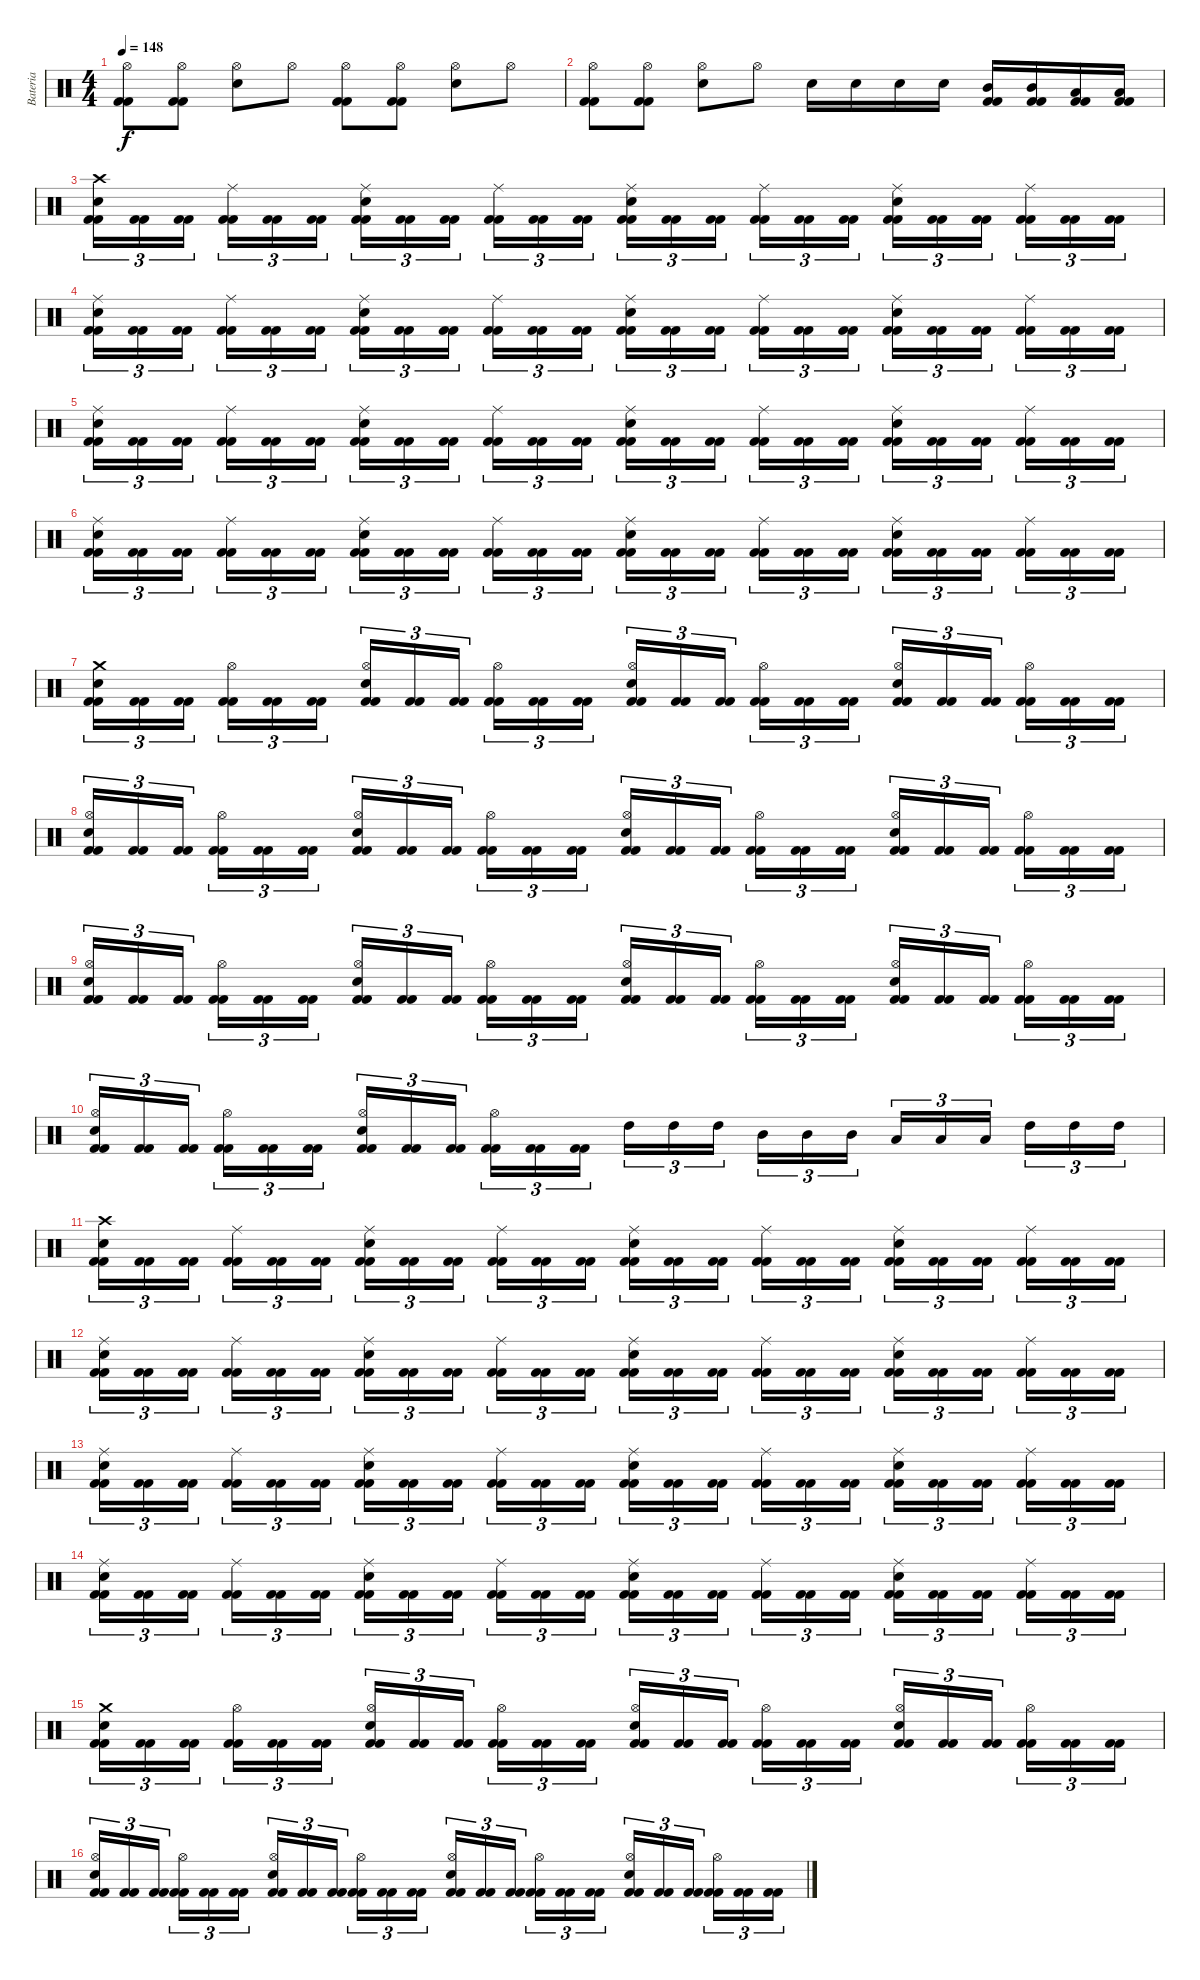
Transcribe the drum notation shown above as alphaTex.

\track ("Bateria" "Bateria") {instrument percussion}
\staff {score}
\articulation defaults
\ts (4 4)
\tempo 148
\clef neutral
\ks c
("Kick (hit) 2" "Kick (hit) 2" "Hi-Hat (open)").8{dy f} ("Kick (hit) 2" "Kick (hit) 2" "Hi-Hat (open)").8 ("Snare (hit) 2" "Hi-Hat (open)").8 "Hi-Hat (open)".8 ("Kick (hit) 2" "Kick (hit) 2" "Hi-Hat (open)").8 ("Kick (hit) 2" "Kick (hit) 2" "Hi-Hat (open)").8 ("Snare (hit) 2" "Hi-Hat (open)").8 "Hi-Hat (open)".8 |
("Kick (hit) 2" "Kick (hit) 2" "Hi-Hat (open)").8 ("Kick (hit) 2" "Kick (hit) 2" "Hi-Hat (open)").8 ("Snare (hit) 2" "Hi-Hat (open)").8 "Hi-Hat (open)".8 "Snare (hit) 2".16 "Snare (hit) 2".16 "Snare (hit) 2".16 "Snare (hit) 2".16 ("Kick (hit) 2" "Kick (hit) 2" "Mid Tom (hit)").16 ("Kick (hit) 2" "Kick (hit) 2" "Mid Tom (hit)").16 ("Kick (hit) 2" "Kick (hit) 2" "Low Tom (hit)").16 ("Kick (hit) 2" "Kick (hit) 2" "Low Tom (hit)").16 |
("Kick (hit) 2" "Kick (hit) 2" "Snare (hit) 2" "Crash high (hit)").16{tu (3 2)} ("Kick (hit) 2" "Kick (hit) 2").16{tu (3 2)} ("Kick (hit) 2" "Kick (hit) 2").16{tu (3 2)} ("Kick (hit) 2" "Kick (hit) 2" "Ride (middle)").16{tu (3 2)} ("Kick (hit) 2" "Kick (hit) 2").16{tu (3 2)} ("Kick (hit) 2" "Kick (hit) 2").16{tu (3 2)} ("Kick (hit) 2" "Kick (hit) 2" "Snare (hit) 2" "Ride (middle)").16{tu (3 2)} ("Kick (hit) 2" "Kick (hit) 2").16{tu (3 2)} ("Kick (hit) 2" "Kick (hit) 2").16{tu (3 2)} ("Kick (hit) 2" "Kick (hit) 2" "Ride (middle)").16{tu (3 2)} ("Kick (hit) 2" "Kick (hit) 2").16{tu (3 2)} ("Kick (hit) 2" "Kick (hit) 2").16{tu (3 2)} ("Kick (hit) 2" "Kick (hit) 2" "Snare (hit) 2" "Ride (middle)").16{tu (3 2)} ("Kick (hit) 2" "Kick (hit) 2").16{tu (3 2)} ("Kick (hit) 2" "Kick (hit) 2").16{tu (3 2)} ("Kick (hit) 2" "Kick (hit) 2" "Ride (middle)").16{tu (3 2)} ("Kick (hit) 2" "Kick (hit) 2").16{tu (3 2)} ("Kick (hit) 2" "Kick (hit) 2").16{tu (3 2)} ("Kick (hit) 2" "Kick (hit) 2" "Snare (hit) 2" "Ride (middle)").16{tu (3 2)} ("Kick (hit) 2" "Kick (hit) 2").16{tu (3 2)} ("Kick (hit) 2" "Kick (hit) 2").16{tu (3 2)} ("Kick (hit) 2" "Kick (hit) 2" "Ride (middle)").16{tu (3 2)} ("Kick (hit) 2" "Kick (hit) 2").16{tu (3 2)} ("Kick (hit) 2" "Kick (hit) 2").16{tu (3 2)} |
("Kick (hit) 2" "Kick (hit) 2" "Snare (hit) 2" "Ride (middle)").16{tu (3 2)} ("Kick (hit) 2" "Kick (hit) 2").16{tu (3 2)} ("Kick (hit) 2" "Kick (hit) 2").16{tu (3 2)} ("Kick (hit) 2" "Kick (hit) 2" "Ride (middle)").16{tu (3 2)} ("Kick (hit) 2" "Kick (hit) 2").16{tu (3 2)} ("Kick (hit) 2" "Kick (hit) 2").16{tu (3 2)} ("Kick (hit) 2" "Kick (hit) 2" "Snare (hit) 2" "Ride (middle)").16{tu (3 2)} ("Kick (hit) 2" "Kick (hit) 2").16{tu (3 2)} ("Kick (hit) 2" "Kick (hit) 2").16{tu (3 2)} ("Kick (hit) 2" "Kick (hit) 2" "Ride (middle)").16{tu (3 2)} ("Kick (hit) 2" "Kick (hit) 2").16{tu (3 2)} ("Kick (hit) 2" "Kick (hit) 2").16{tu (3 2)} ("Kick (hit) 2" "Kick (hit) 2" "Snare (hit) 2" "Ride (middle)").16{tu (3 2)} ("Kick (hit) 2" "Kick (hit) 2").16{tu (3 2)} ("Kick (hit) 2" "Kick (hit) 2").16{tu (3 2)} ("Kick (hit) 2" "Kick (hit) 2" "Ride (middle)").16{tu (3 2)} ("Kick (hit) 2" "Kick (hit) 2").16{tu (3 2)} ("Kick (hit) 2" "Kick (hit) 2").16{tu (3 2)} ("Kick (hit) 2" "Kick (hit) 2" "Snare (hit) 2" "Ride (middle)").16{tu (3 2)} ("Kick (hit) 2" "Kick (hit) 2").16{tu (3 2)} ("Kick (hit) 2" "Kick (hit) 2").16{tu (3 2)} ("Kick (hit) 2" "Kick (hit) 2" "Ride (middle)").16{tu (3 2)} ("Kick (hit) 2" "Kick (hit) 2").16{tu (3 2)} ("Kick (hit) 2" "Kick (hit) 2").16{tu (3 2)} |
("Kick (hit) 2" "Kick (hit) 2" "Snare (hit) 2" "Ride (middle)").16{tu (3 2)} ("Kick (hit) 2" "Kick (hit) 2").16{tu (3 2)} ("Kick (hit) 2" "Kick (hit) 2").16{tu (3 2)} ("Kick (hit) 2" "Kick (hit) 2" "Ride (middle)").16{tu (3 2)} ("Kick (hit) 2" "Kick (hit) 2").16{tu (3 2)} ("Kick (hit) 2" "Kick (hit) 2").16{tu (3 2)} ("Kick (hit) 2" "Kick (hit) 2" "Snare (hit) 2" "Ride (middle)").16{tu (3 2)} ("Kick (hit) 2" "Kick (hit) 2").16{tu (3 2)} ("Kick (hit) 2" "Kick (hit) 2").16{tu (3 2)} ("Kick (hit) 2" "Kick (hit) 2" "Ride (middle)").16{tu (3 2)} ("Kick (hit) 2" "Kick (hit) 2").16{tu (3 2)} ("Kick (hit) 2" "Kick (hit) 2").16{tu (3 2)} ("Kick (hit) 2" "Kick (hit) 2" "Snare (hit) 2" "Ride (middle)").16{tu (3 2)} ("Kick (hit) 2" "Kick (hit) 2").16{tu (3 2)} ("Kick (hit) 2" "Kick (hit) 2").16{tu (3 2)} ("Kick (hit) 2" "Kick (hit) 2" "Ride (middle)").16{tu (3 2)} ("Kick (hit) 2" "Kick (hit) 2").16{tu (3 2)} ("Kick (hit) 2" "Kick (hit) 2").16{tu (3 2)} ("Kick (hit) 2" "Kick (hit) 2" "Snare (hit) 2" "Ride (middle)").16{tu (3 2)} ("Kick (hit) 2" "Kick (hit) 2").16{tu (3 2)} ("Kick (hit) 2" "Kick (hit) 2").16{tu (3 2)} ("Kick (hit) 2" "Kick (hit) 2" "Ride (middle)").16{tu (3 2)} ("Kick (hit) 2" "Kick (hit) 2").16{tu (3 2)} ("Kick (hit) 2" "Kick (hit) 2").16{tu (3 2)} |
("Kick (hit) 2" "Kick (hit) 2" "Snare (hit) 2" "Ride (middle)").16{tu (3 2)} ("Kick (hit) 2" "Kick (hit) 2").16{tu (3 2)} ("Kick (hit) 2" "Kick (hit) 2").16{tu (3 2)} ("Kick (hit) 2" "Kick (hit) 2" "Ride (middle)").16{tu (3 2)} ("Kick (hit) 2" "Kick (hit) 2").16{tu (3 2)} ("Kick (hit) 2" "Kick (hit) 2").16{tu (3 2)} ("Kick (hit) 2" "Kick (hit) 2" "Snare (hit) 2" "Ride (middle)").16{tu (3 2)} ("Kick (hit) 2" "Kick (hit) 2").16{tu (3 2)} ("Kick (hit) 2" "Kick (hit) 2").16{tu (3 2)} ("Kick (hit) 2" "Kick (hit) 2" "Ride (middle)").16{tu (3 2)} ("Kick (hit) 2" "Kick (hit) 2").16{tu (3 2)} ("Kick (hit) 2" "Kick (hit) 2").16{tu (3 2)} ("Kick (hit) 2" "Kick (hit) 2" "Snare (hit) 2" "Ride (middle)").16{tu (3 2)} ("Kick (hit) 2" "Kick (hit) 2").16{tu (3 2)} ("Kick (hit) 2" "Kick (hit) 2").16{tu (3 2)} ("Kick (hit) 2" "Kick (hit) 2" "Ride (middle)").16{tu (3 2)} ("Kick (hit) 2" "Kick (hit) 2").16{tu (3 2)} ("Kick (hit) 2" "Kick (hit) 2").16{tu (3 2)} ("Kick (hit) 2" "Kick (hit) 2" "Snare (hit) 2" "Ride (middle)").16{tu (3 2)} ("Kick (hit) 2" "Kick (hit) 2").16{tu (3 2)} ("Kick (hit) 2" "Kick (hit) 2").16{tu (3 2)} ("Kick (hit) 2" "Kick (hit) 2" "Ride (middle)").16{tu (3 2)} ("Kick (hit) 2" "Kick (hit) 2").16{tu (3 2)} ("Kick (hit) 2" "Kick (hit) 2").16{tu (3 2)} |
("Kick (hit) 2" "Kick (hit) 2" "Snare (hit) 2" "Crash medium (hit)").16{tu (3 2)} ("Kick (hit) 2" "Kick (hit) 2").16{tu (3 2)} ("Kick (hit) 2" "Kick (hit) 2").16{tu (3 2)} ("Kick (hit) 2" "Kick (hit) 2" "Hi-Hat (open)").16{tu (3 2)} ("Kick (hit) 2" "Kick (hit) 2").16{tu (3 2)} ("Kick (hit) 2" "Kick (hit) 2").16{tu (3 2)} ("Kick (hit) 2" "Kick (hit) 2" "Snare (hit) 2" "Hi-Hat (open)").16{tu (3 2)} ("Kick (hit) 2" "Kick (hit) 2").16{tu (3 2)} ("Kick (hit) 2" "Kick (hit) 2").16{tu (3 2)} ("Kick (hit) 2" "Kick (hit) 2" "Hi-Hat (open)").16{tu (3 2)} ("Kick (hit) 2" "Kick (hit) 2").16{tu (3 2)} ("Kick (hit) 2" "Kick (hit) 2").16{tu (3 2)} ("Kick (hit) 2" "Kick (hit) 2" "Snare (hit) 2" "Hi-Hat (open)").16{tu (3 2)} ("Kick (hit) 2" "Kick (hit) 2").16{tu (3 2)} ("Kick (hit) 2" "Kick (hit) 2").16{tu (3 2)} ("Kick (hit) 2" "Kick (hit) 2" "Hi-Hat (open)").16{tu (3 2)} ("Kick (hit) 2" "Kick (hit) 2").16{tu (3 2)} ("Kick (hit) 2" "Kick (hit) 2").16{tu (3 2)} ("Kick (hit) 2" "Kick (hit) 2" "Snare (hit) 2" "Hi-Hat (open)").16{tu (3 2)} ("Kick (hit) 2" "Kick (hit) 2").16{tu (3 2)} ("Kick (hit) 2" "Kick (hit) 2").16{tu (3 2)} ("Kick (hit) 2" "Kick (hit) 2" "Hi-Hat (open)").16{tu (3 2)} ("Kick (hit) 2" "Kick (hit) 2").16{tu (3 2)} ("Kick (hit) 2" "Kick (hit) 2").16{tu (3 2)} |
("Kick (hit) 2" "Kick (hit) 2" "Snare (hit) 2" "Hi-Hat (open)").16{tu (3 2)} ("Kick (hit) 2" "Kick (hit) 2").16{tu (3 2)} ("Kick (hit) 2" "Kick (hit) 2").16{tu (3 2)} ("Kick (hit) 2" "Kick (hit) 2" "Hi-Hat (open)").16{tu (3 2)} ("Kick (hit) 2" "Kick (hit) 2").16{tu (3 2)} ("Kick (hit) 2" "Kick (hit) 2").16{tu (3 2)} ("Kick (hit) 2" "Kick (hit) 2" "Snare (hit) 2" "Hi-Hat (open)").16{tu (3 2)} ("Kick (hit) 2" "Kick (hit) 2").16{tu (3 2)} ("Kick (hit) 2" "Kick (hit) 2").16{tu (3 2)} ("Kick (hit) 2" "Kick (hit) 2" "Hi-Hat (open)").16{tu (3 2)} ("Kick (hit) 2" "Kick (hit) 2").16{tu (3 2)} ("Kick (hit) 2" "Kick (hit) 2").16{tu (3 2)} ("Kick (hit) 2" "Kick (hit) 2" "Snare (hit) 2" "Hi-Hat (open)").16{tu (3 2)} ("Kick (hit) 2" "Kick (hit) 2").16{tu (3 2)} ("Kick (hit) 2" "Kick (hit) 2").16{tu (3 2)} ("Kick (hit) 2" "Kick (hit) 2" "Hi-Hat (open)").16{tu (3 2)} ("Kick (hit) 2" "Kick (hit) 2").16{tu (3 2)} ("Kick (hit) 2" "Kick (hit) 2").16{tu (3 2)} ("Kick (hit) 2" "Kick (hit) 2" "Snare (hit) 2" "Hi-Hat (open)").16{tu (3 2)} ("Kick (hit) 2" "Kick (hit) 2").16{tu (3 2)} ("Kick (hit) 2" "Kick (hit) 2").16{tu (3 2)} ("Kick (hit) 2" "Kick (hit) 2" "Hi-Hat (open)").16{tu (3 2)} ("Kick (hit) 2" "Kick (hit) 2").16{tu (3 2)} ("Kick (hit) 2" "Kick (hit) 2").16{tu (3 2)} |
("Kick (hit) 2" "Kick (hit) 2" "Snare (hit) 2" "Hi-Hat (open)").16{tu (3 2)} ("Kick (hit) 2" "Kick (hit) 2").16{tu (3 2)} ("Kick (hit) 2" "Kick (hit) 2").16{tu (3 2)} ("Kick (hit) 2" "Kick (hit) 2" "Hi-Hat (open)").16{tu (3 2)} ("Kick (hit) 2" "Kick (hit) 2").16{tu (3 2)} ("Kick (hit) 2" "Kick (hit) 2").16{tu (3 2)} ("Kick (hit) 2" "Kick (hit) 2" "Snare (hit) 2" "Hi-Hat (open)").16{tu (3 2)} ("Kick (hit) 2" "Kick (hit) 2").16{tu (3 2)} ("Kick (hit) 2" "Kick (hit) 2").16{tu (3 2)} ("Kick (hit) 2" "Kick (hit) 2" "Hi-Hat (open)").16{tu (3 2)} ("Kick (hit) 2" "Kick (hit) 2").16{tu (3 2)} ("Kick (hit) 2" "Kick (hit) 2").16{tu (3 2)} ("Kick (hit) 2" "Kick (hit) 2" "Snare (hit) 2" "Hi-Hat (open)").16{tu (3 2)} ("Kick (hit) 2" "Kick (hit) 2").16{tu (3 2)} ("Kick (hit) 2" "Kick (hit) 2").16{tu (3 2)} ("Kick (hit) 2" "Kick (hit) 2" "Hi-Hat (open)").16{tu (3 2)} ("Kick (hit) 2" "Kick (hit) 2").16{tu (3 2)} ("Kick (hit) 2" "Kick (hit) 2").16{tu (3 2)} ("Kick (hit) 2" "Kick (hit) 2" "Snare (hit) 2" "Hi-Hat (open)").16{tu (3 2)} ("Kick (hit) 2" "Kick (hit) 2").16{tu (3 2)} ("Kick (hit) 2" "Kick (hit) 2").16{tu (3 2)} ("Kick (hit) 2" "Kick (hit) 2" "Hi-Hat (open)").16{tu (3 2)} ("Kick (hit) 2" "Kick (hit) 2").16{tu (3 2)} ("Kick (hit) 2" "Kick (hit) 2").16{tu (3 2)} |
("Kick (hit) 2" "Kick (hit) 2" "Snare (hit) 2" "Hi-Hat (open)").16{tu (3 2)} ("Kick (hit) 2" "Kick (hit) 2").16{tu (3 2)} ("Kick (hit) 2" "Kick (hit) 2").16{tu (3 2)} ("Kick (hit) 2" "Kick (hit) 2" "Hi-Hat (open)").16{tu (3 2)} ("Kick (hit) 2" "Kick (hit) 2").16{tu (3 2)} ("Kick (hit) 2" "Kick (hit) 2").16{tu (3 2)} ("Kick (hit) 2" "Kick (hit) 2" "Snare (hit) 2" "Hi-Hat (open)").16{tu (3 2)} ("Kick (hit) 2" "Kick (hit) 2").16{tu (3 2)} ("Kick (hit) 2" "Kick (hit) 2").16{tu (3 2)} ("Kick (hit) 2" "Kick (hit) 2" "Hi-Hat (open)").16{tu (3 2)} ("Kick (hit) 2" "Kick (hit) 2").16{tu (3 2)} ("Kick (hit) 2" "Kick (hit) 2").16{tu (3 2)} "High Tom (hit)".16{tu (3 2)} "High Tom (hit)".16{tu (3 2)} "High Tom (hit)".16{tu (3 2)} "Mid Tom (hit)".16{tu (3 2)} "Mid Tom (hit)".16{tu (3 2)} "Mid Tom (hit)".16{tu (3 2)} "Low Tom (hit)".16{tu (3 2)} "Low Tom (hit)".16{tu (3 2)} "Low Tom (hit)".16{tu (3 2)} "High Tom (hit)".16{tu (3 2)} "High Tom (hit)".16{tu (3 2)} "High Tom (hit)".16{tu (3 2)} |
("Kick (hit) 2" "Kick (hit) 2" "Snare (hit) 2" "Crash high (hit)").16{tu (3 2)} ("Kick (hit) 2" "Kick (hit) 2").16{tu (3 2)} ("Kick (hit) 2" "Kick (hit) 2").16{tu (3 2)} ("Kick (hit) 2" "Kick (hit) 2" "Ride (middle)").16{tu (3 2)} ("Kick (hit) 2" "Kick (hit) 2").16{tu (3 2)} ("Kick (hit) 2" "Kick (hit) 2").16{tu (3 2)} ("Kick (hit) 2" "Kick (hit) 2" "Snare (hit) 2" "Ride (middle)").16{tu (3 2)} ("Kick (hit) 2" "Kick (hit) 2").16{tu (3 2)} ("Kick (hit) 2" "Kick (hit) 2").16{tu (3 2)} ("Kick (hit) 2" "Kick (hit) 2" "Ride (middle)").16{tu (3 2)} ("Kick (hit) 2" "Kick (hit) 2").16{tu (3 2)} ("Kick (hit) 2" "Kick (hit) 2").16{tu (3 2)} ("Kick (hit) 2" "Kick (hit) 2" "Snare (hit) 2" "Ride (middle)").16{tu (3 2)} ("Kick (hit) 2" "Kick (hit) 2").16{tu (3 2)} ("Kick (hit) 2" "Kick (hit) 2").16{tu (3 2)} ("Kick (hit) 2" "Kick (hit) 2" "Ride (middle)").16{tu (3 2)} ("Kick (hit) 2" "Kick (hit) 2").16{tu (3 2)} ("Kick (hit) 2" "Kick (hit) 2").16{tu (3 2)} ("Kick (hit) 2" "Kick (hit) 2" "Snare (hit) 2" "Ride (middle)").16{tu (3 2)} ("Kick (hit) 2" "Kick (hit) 2").16{tu (3 2)} ("Kick (hit) 2" "Kick (hit) 2").16{tu (3 2)} ("Kick (hit) 2" "Kick (hit) 2" "Ride (middle)").16{tu (3 2)} ("Kick (hit) 2" "Kick (hit) 2").16{tu (3 2)} ("Kick (hit) 2" "Kick (hit) 2").16{tu (3 2)} |
("Kick (hit) 2" "Kick (hit) 2" "Snare (hit) 2" "Ride (middle)").16{tu (3 2)} ("Kick (hit) 2" "Kick (hit) 2").16{tu (3 2)} ("Kick (hit) 2" "Kick (hit) 2").16{tu (3 2)} ("Kick (hit) 2" "Kick (hit) 2" "Ride (middle)").16{tu (3 2)} ("Kick (hit) 2" "Kick (hit) 2").16{tu (3 2)} ("Kick (hit) 2" "Kick (hit) 2").16{tu (3 2)} ("Kick (hit) 2" "Kick (hit) 2" "Snare (hit) 2" "Ride (middle)").16{tu (3 2)} ("Kick (hit) 2" "Kick (hit) 2").16{tu (3 2)} ("Kick (hit) 2" "Kick (hit) 2").16{tu (3 2)} ("Kick (hit) 2" "Kick (hit) 2" "Ride (middle)").16{tu (3 2)} ("Kick (hit) 2" "Kick (hit) 2").16{tu (3 2)} ("Kick (hit) 2" "Kick (hit) 2").16{tu (3 2)} ("Kick (hit) 2" "Kick (hit) 2" "Snare (hit) 2" "Ride (middle)").16{tu (3 2)} ("Kick (hit) 2" "Kick (hit) 2").16{tu (3 2)} ("Kick (hit) 2" "Kick (hit) 2").16{tu (3 2)} ("Kick (hit) 2" "Kick (hit) 2" "Ride (middle)").16{tu (3 2)} ("Kick (hit) 2" "Kick (hit) 2").16{tu (3 2)} ("Kick (hit) 2" "Kick (hit) 2").16{tu (3 2)} ("Kick (hit) 2" "Kick (hit) 2" "Snare (hit) 2" "Ride (middle)").16{tu (3 2)} ("Kick (hit) 2" "Kick (hit) 2").16{tu (3 2)} ("Kick (hit) 2" "Kick (hit) 2").16{tu (3 2)} ("Kick (hit) 2" "Kick (hit) 2" "Ride (middle)").16{tu (3 2)} ("Kick (hit) 2" "Kick (hit) 2").16{tu (3 2)} ("Kick (hit) 2" "Kick (hit) 2").16{tu (3 2)} |
("Kick (hit) 2" "Kick (hit) 2" "Snare (hit) 2" "Ride (middle)").16{tu (3 2)} ("Kick (hit) 2" "Kick (hit) 2").16{tu (3 2)} ("Kick (hit) 2" "Kick (hit) 2").16{tu (3 2)} ("Kick (hit) 2" "Kick (hit) 2" "Ride (middle)").16{tu (3 2)} ("Kick (hit) 2" "Kick (hit) 2").16{tu (3 2)} ("Kick (hit) 2" "Kick (hit) 2").16{tu (3 2)} ("Kick (hit) 2" "Kick (hit) 2" "Snare (hit) 2" "Ride (middle)").16{tu (3 2)} ("Kick (hit) 2" "Kick (hit) 2").16{tu (3 2)} ("Kick (hit) 2" "Kick (hit) 2").16{tu (3 2)} ("Kick (hit) 2" "Kick (hit) 2" "Ride (middle)").16{tu (3 2)} ("Kick (hit) 2" "Kick (hit) 2").16{tu (3 2)} ("Kick (hit) 2" "Kick (hit) 2").16{tu (3 2)} ("Kick (hit) 2" "Kick (hit) 2" "Snare (hit) 2" "Ride (middle)").16{tu (3 2)} ("Kick (hit) 2" "Kick (hit) 2").16{tu (3 2)} ("Kick (hit) 2" "Kick (hit) 2").16{tu (3 2)} ("Kick (hit) 2" "Kick (hit) 2" "Ride (middle)").16{tu (3 2)} ("Kick (hit) 2" "Kick (hit) 2").16{tu (3 2)} ("Kick (hit) 2" "Kick (hit) 2").16{tu (3 2)} ("Kick (hit) 2" "Kick (hit) 2" "Snare (hit) 2" "Ride (middle)").16{tu (3 2)} ("Kick (hit) 2" "Kick (hit) 2").16{tu (3 2)} ("Kick (hit) 2" "Kick (hit) 2").16{tu (3 2)} ("Kick (hit) 2" "Kick (hit) 2" "Ride (middle)").16{tu (3 2)} ("Kick (hit) 2" "Kick (hit) 2").16{tu (3 2)} ("Kick (hit) 2" "Kick (hit) 2").16{tu (3 2)} |
("Kick (hit) 2" "Kick (hit) 2" "Snare (hit) 2" "Ride (middle)").16{tu (3 2)} ("Kick (hit) 2" "Kick (hit) 2").16{tu (3 2)} ("Kick (hit) 2" "Kick (hit) 2").16{tu (3 2)} ("Kick (hit) 2" "Kick (hit) 2" "Ride (middle)").16{tu (3 2)} ("Kick (hit) 2" "Kick (hit) 2").16{tu (3 2)} ("Kick (hit) 2" "Kick (hit) 2").16{tu (3 2)} ("Kick (hit) 2" "Kick (hit) 2" "Snare (hit) 2" "Ride (middle)").16{tu (3 2)} ("Kick (hit) 2" "Kick (hit) 2").16{tu (3 2)} ("Kick (hit) 2" "Kick (hit) 2").16{tu (3 2)} ("Kick (hit) 2" "Kick (hit) 2" "Ride (middle)").16{tu (3 2)} ("Kick (hit) 2" "Kick (hit) 2").16{tu (3 2)} ("Kick (hit) 2" "Kick (hit) 2").16{tu (3 2)} ("Kick (hit) 2" "Kick (hit) 2" "Snare (hit) 2" "Ride (middle)").16{tu (3 2)} ("Kick (hit) 2" "Kick (hit) 2").16{tu (3 2)} ("Kick (hit) 2" "Kick (hit) 2").16{tu (3 2)} ("Kick (hit) 2" "Kick (hit) 2" "Ride (middle)").16{tu (3 2)} ("Kick (hit) 2" "Kick (hit) 2").16{tu (3 2)} ("Kick (hit) 2" "Kick (hit) 2").16{tu (3 2)} ("Kick (hit) 2" "Kick (hit) 2" "Snare (hit) 2" "Ride (middle)").16{tu (3 2)} ("Kick (hit) 2" "Kick (hit) 2").16{tu (3 2)} ("Kick (hit) 2" "Kick (hit) 2").16{tu (3 2)} ("Kick (hit) 2" "Kick (hit) 2" "Ride (middle)").16{tu (3 2)} ("Kick (hit) 2" "Kick (hit) 2").16{tu (3 2)} ("Kick (hit) 2" "Kick (hit) 2").16{tu (3 2)} |
("Kick (hit) 2" "Kick (hit) 2" "Snare (hit) 2" "Crash medium (hit)").16{tu (3 2)} ("Kick (hit) 2" "Kick (hit) 2").16{tu (3 2)} ("Kick (hit) 2" "Kick (hit) 2").16{tu (3 2)} ("Kick (hit) 2" "Kick (hit) 2" "Hi-Hat (open)").16{tu (3 2)} ("Kick (hit) 2" "Kick (hit) 2").16{tu (3 2)} ("Kick (hit) 2" "Kick (hit) 2").16{tu (3 2)} ("Kick (hit) 2" "Kick (hit) 2" "Snare (hit) 2" "Hi-Hat (open)").16{tu (3 2)} ("Kick (hit) 2" "Kick (hit) 2").16{tu (3 2)} ("Kick (hit) 2" "Kick (hit) 2").16{tu (3 2)} ("Kick (hit) 2" "Kick (hit) 2" "Hi-Hat (open)").16{tu (3 2)} ("Kick (hit) 2" "Kick (hit) 2").16{tu (3 2)} ("Kick (hit) 2" "Kick (hit) 2").16{tu (3 2)} ("Kick (hit) 2" "Kick (hit) 2" "Snare (hit) 2" "Hi-Hat (open)").16{tu (3 2)} ("Kick (hit) 2" "Kick (hit) 2").16{tu (3 2)} ("Kick (hit) 2" "Kick (hit) 2").16{tu (3 2)} ("Kick (hit) 2" "Kick (hit) 2" "Hi-Hat (open)").16{tu (3 2)} ("Kick (hit) 2" "Kick (hit) 2").16{tu (3 2)} ("Kick (hit) 2" "Kick (hit) 2").16{tu (3 2)} ("Kick (hit) 2" "Kick (hit) 2" "Snare (hit) 2" "Hi-Hat (open)").16{tu (3 2)} ("Kick (hit) 2" "Kick (hit) 2").16{tu (3 2)} ("Kick (hit) 2" "Kick (hit) 2").16{tu (3 2)} ("Kick (hit) 2" "Kick (hit) 2" "Hi-Hat (open)").16{tu (3 2)} ("Kick (hit) 2" "Kick (hit) 2").16{tu (3 2)} ("Kick (hit) 2" "Kick (hit) 2").16{tu (3 2)} |
("Kick (hit) 2" "Kick (hit) 2" "Snare (hit) 2" "Hi-Hat (open)").16{tu (3 2)} ("Kick (hit) 2" "Kick (hit) 2").16{tu (3 2)} ("Kick (hit) 2" "Kick (hit) 2").16{tu (3 2)} ("Kick (hit) 2" "Kick (hit) 2" "Hi-Hat (open)").16{tu (3 2)} ("Kick (hit) 2" "Kick (hit) 2").16{tu (3 2)} ("Kick (hit) 2" "Kick (hit) 2").16{tu (3 2)} ("Kick (hit) 2" "Kick (hit) 2" "Snare (hit) 2" "Hi-Hat (open)").16{tu (3 2)} ("Kick (hit) 2" "Kick (hit) 2").16{tu (3 2)} ("Kick (hit) 2" "Kick (hit) 2").16{tu (3 2)} ("Kick (hit) 2" "Kick (hit) 2" "Hi-Hat (open)").16{tu (3 2)} ("Kick (hit) 2" "Kick (hit) 2").16{tu (3 2)} ("Kick (hit) 2" "Kick (hit) 2").16{tu (3 2)} ("Kick (hit) 2" "Kick (hit) 2" "Snare (hit) 2" "Hi-Hat (open)").16{tu (3 2)} ("Kick (hit) 2" "Kick (hit) 2").16{tu (3 2)} ("Kick (hit) 2" "Kick (hit) 2").16{tu (3 2)} ("Kick (hit) 2" "Kick (hit) 2" "Hi-Hat (open)").16{tu (3 2)} ("Kick (hit) 2" "Kick (hit) 2").16{tu (3 2)} ("Kick (hit) 2" "Kick (hit) 2").16{tu (3 2)} ("Kick (hit) 2" "Kick (hit) 2" "Snare (hit) 2" "Hi-Hat (open)").16{tu (3 2)} ("Kick (hit) 2" "Kick (hit) 2").16{tu (3 2)} ("Kick (hit) 2" "Kick (hit) 2").16{tu (3 2)} ("Kick (hit) 2" "Kick (hit) 2" "Hi-Hat (open)").16{tu (3 2)} ("Kick (hit) 2" "Kick (hit) 2").16{tu (3 2)} ("Kick (hit) 2" "Kick (hit) 2").16{tu (3 2)}
